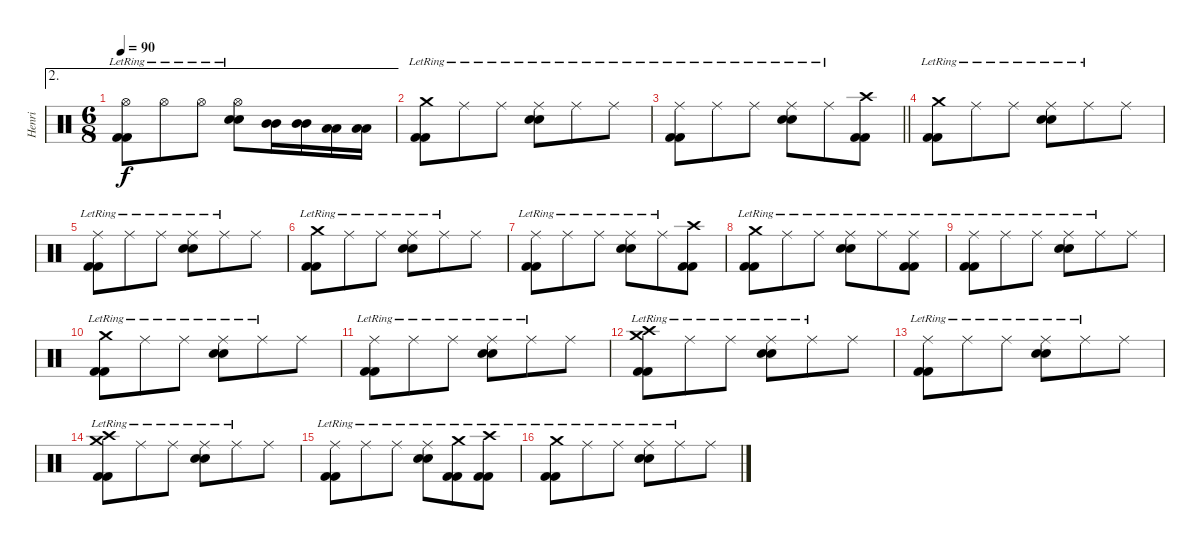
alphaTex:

\track ("Henri" "Henri") {instrument percussion}
\staff {score}
\articulation defaults
\ae 2
\ts (6 8)
\tempo 90
\clef neutral
\ks c
("Hi-Hat (open)"{lr} "Kick (hit) 2" "Kick (hit) 2").8{dy f} "Hi-Hat (open)"{lr}.8 "Hi-Hat (open)"{lr}.8 ("Hi-Hat (open)"{lr} "Electric Snare (hit)" "Electric Snare (hit)").8 ("Mid Tom (hit)" "Mid Tom (hit)").16 ("Mid Tom (hit)" "Mid Tom (hit)").16 ("Low Tom (hit)" "Low Tom (hit)").16 ("Low Tom (hit)" "Low Tom (hit)").16 |
("Crash medium (hit)"{lr} "Kick (hit) 2" "Kick (hit) 2").8 "Ride (middle)"{lr}.8 "Ride (middle)"{lr}.8 ("Ride (middle)"{lr} "Electric Snare (hit)" "Electric Snare (hit)").8 "Ride (middle)"{lr}.8 "Ride (middle)"{lr}.8 |
\barLineRight lightlight
("Ride (middle)"{lr} "Kick (hit) 2" "Kick (hit) 2").8 "Ride (middle)"{lr}.8 "Ride (middle)"{lr}.8 ("Ride (middle)"{lr} "Electric Snare (hit)" "Electric Snare (hit)").8 "Ride (middle)"{lr}.8 ("Crash high (hit)" "Kick (hit) 2" "Kick (hit) 2").8 |
("Crash medium (hit)"{lr} "Kick (hit) 2" "Kick (hit) 2").8 "Ride (middle)"{lr}.8 "Ride (middle)"{lr}.8 ("Ride (middle)"{lr} "Electric Snare (hit)" "Electric Snare (hit)").8 "Ride (middle)"{lr}.8 "Ride (middle)".8 |
("Ride (middle)"{lr} "Kick (hit) 2" "Kick (hit) 2").8 "Ride (middle)"{lr}.8 "Ride (middle)"{lr}.8 ("Ride (middle)"{lr} "Electric Snare (hit)" "Electric Snare (hit)").8 "Ride (middle)"{lr}.8 "Ride (middle)".8 |
("Crash medium (hit)"{lr} "Kick (hit) 2" "Kick (hit) 2").8 "Ride (middle)"{lr}.8 "Ride (middle)"{lr}.8 ("Ride (middle)"{lr} "Electric Snare (hit)" "Electric Snare (hit)").8 "Ride (middle)"{lr}.8 "Ride (middle)".8 |
("Ride (middle)"{lr} "Kick (hit) 2" "Kick (hit) 2").8 "Ride (middle)"{lr}.8 "Ride (middle)"{lr}.8 ("Ride (middle)"{lr} "Electric Snare (hit)" "Electric Snare (hit)").8 "Ride (middle)"{lr}.8 ("Crash high (hit)" "Kick (hit) 2" "Kick (hit) 2").8 |
("Crash medium (hit)"{lr} "Kick (hit) 2" "Kick (hit) 2").8 "Ride (middle)"{lr}.8 "Ride (middle)"{lr}.8 ("Ride (middle)"{lr} "Electric Snare (hit)" "Electric Snare (hit)").8 "Ride (middle)"{lr}.8 ("Ride (middle)"{lr} "Kick (hit) 2" "Kick (hit) 2").8 |
("Ride (middle)"{lr} "Kick (hit) 2" "Kick (hit) 2").8 "Ride (middle)"{lr}.8 "Ride (middle)"{lr}.8 ("Ride (middle)"{lr} "Electric Snare (hit)" "Electric Snare (hit)").8 "Ride (middle)"{lr}.8 "Ride (middle)".8 |
("Crash medium (hit)"{lr} "Kick (hit) 2" "Kick (hit) 2").8 "Ride (middle)"{lr}.8 "Ride (middle)"{lr}.8 ("Ride (middle)"{lr} "Electric Snare (hit)" "Electric Snare (hit)").8 "Ride (middle)"{lr}.8 "Ride (middle)".8 |
("Ride (middle)"{lr} "Kick (hit) 2" "Kick (hit) 2").8 "Ride (middle)"{lr}.8 "Ride (middle)"{lr}.8 ("Ride (middle)"{lr} "Electric Snare (hit)" "Electric Snare (hit)").8 "Ride (middle)"{lr}.8 "Ride (middle)".8 |
("Crash medium (hit)"{lr} "Crash high (hit)"{lr} "Kick (hit) 2" "Kick (hit) 2").8 "Ride (middle)"{lr}.8 "Ride (middle)"{lr}.8 ("Ride (middle)"{lr} "Electric Snare (hit)" "Electric Snare (hit)").8 "Ride (middle)"{lr}.8 "Ride (middle)".8 |
("Ride (middle)"{lr} "Kick (hit) 2" "Kick (hit) 2").8 "Ride (middle)"{lr}.8 "Ride (middle)"{lr}.8 ("Ride (middle)"{lr} "Electric Snare (hit)" "Electric Snare (hit)").8 "Ride (middle)"{lr}.8 "Ride (middle)".8 |
("Crash medium (hit)"{lr} "Crash high (hit)"{lr} "Kick (hit) 2" "Kick (hit) 2").8 "Ride (middle)"{lr}.8 "Ride (middle)"{lr}.8 ("Ride (middle)"{lr} "Electric Snare (hit)" "Electric Snare (hit)").8 "Ride (middle)"{lr}.8 "Ride (middle)".8 |
("Ride (middle)"{lr} "Kick (hit) 2" "Kick (hit) 2").8 "Ride (middle)"{lr}.8 "Ride (middle)"{lr}.8 ("Ride (middle)"{lr} "Electric Snare (hit)" "Electric Snare (hit)").8 ("Crash medium (hit)"{lr} "Kick (hit) 2" "Kick (hit) 2").8 ("Crash high (hit)"{lr} "Kick (hit) 2" "Kick (hit) 2").8 |
("Crash medium (hit)"{lr} "Kick (hit) 2" "Kick (hit) 2").8 "Ride (middle)"{lr}.8 "Ride (middle)"{lr}.8 ("Ride (middle)"{lr} "Electric Snare (hit)" "Electric Snare (hit)").8 "Ride (middle)"{lr}.8 "Ride (middle)".8
